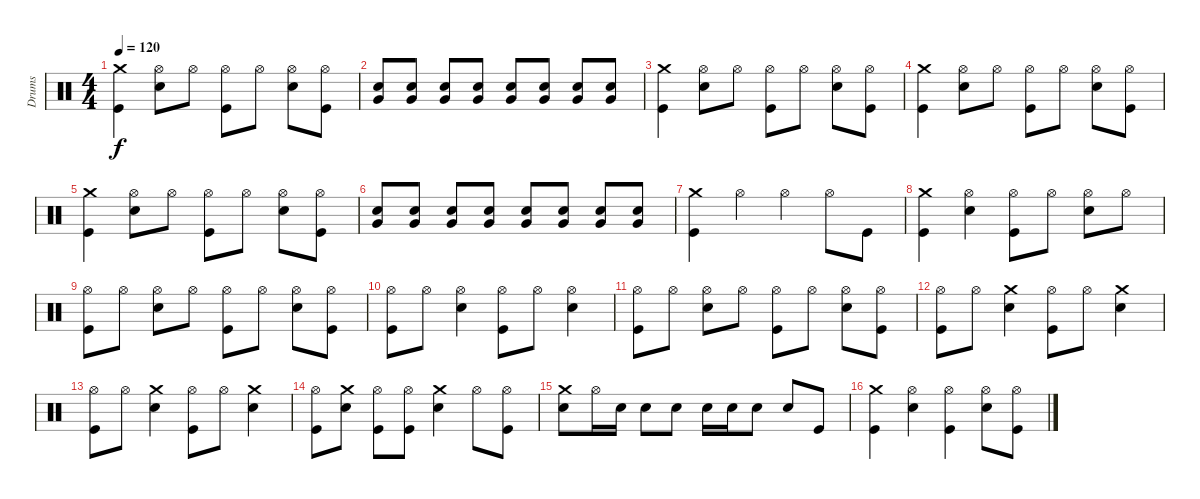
\track ("Drums" "Drums") {instrument percussion}
\staff {score}
\articulation defaults
\ts (4 4)
\tempo 120
\clef neutral
\ks c
("Kick (hit)" "Crash medium (hit)").4{dy f} ("Electric Snare (hit)" "Hi-Hat (open)").8 "Hi-Hat (open)".8 ("Kick (hit)" "Hi-Hat (open)").8 "Hi-Hat (open)".8 ("Electric Snare (hit)" "Hi-Hat (open)").8 ("Kick (hit)" "Hi-Hat (open)").8 |
("Electric Snare (hit)" "Very Low Tom (hit)").8 ("Electric Snare (hit)" "Very Low Tom (hit)").8 ("Electric Snare (hit)" "Very Low Tom (hit)").8 ("Electric Snare (hit)" "Very Low Tom (hit)").8 ("Electric Snare (hit)" "Very Low Tom (hit)").8 ("Electric Snare (hit)" "Very Low Tom (hit)").8 ("Electric Snare (hit)" "Very Low Tom (hit)").8 ("Electric Snare (hit)" "Very Low Tom (hit)").8 |
("Kick (hit)" "Crash medium (hit)").4 ("Electric Snare (hit)" "Hi-Hat (open)").8 "Hi-Hat (open)".8 ("Kick (hit)" "Hi-Hat (open)").8 "Hi-Hat (open)".8 ("Electric Snare (hit)" "Hi-Hat (open)").8 ("Kick (hit)" "Hi-Hat (open)").8 |
("Kick (hit)" "Crash medium (hit)").4 ("Electric Snare (hit)" "Hi-Hat (open)").8 "Hi-Hat (open)".8 ("Kick (hit)" "Hi-Hat (open)").8 "Hi-Hat (open)".8 ("Electric Snare (hit)" "Hi-Hat (open)").8 ("Kick (hit)" "Hi-Hat (open)").8 |
("Kick (hit)" "Crash medium (hit)").4 ("Electric Snare (hit)" "Hi-Hat (open)").8 "Hi-Hat (open)".8 ("Kick (hit)" "Hi-Hat (open)").8 "Hi-Hat (open)".8 ("Electric Snare (hit)" "Hi-Hat (open)").8 ("Kick (hit)" "Hi-Hat (open)").8 |
("Electric Snare (hit)" "Very Low Tom (hit)").8 ("Electric Snare (hit)" "Very Low Tom (hit)").8 ("Electric Snare (hit)" "Very Low Tom (hit)").8 ("Electric Snare (hit)" "Very Low Tom (hit)").8 ("Electric Snare (hit)" "Very Low Tom (hit)").8 ("Electric Snare (hit)" "Very Low Tom (hit)").8 ("Electric Snare (hit)" "Very Low Tom (hit)").8 ("Electric Snare (hit)" "Very Low Tom (hit)").8 |
("Kick (hit)" "Crash medium (hit)").4 "Hi-Hat (open)".4 "Hi-Hat (open)".4 "Hi-Hat (open)".8 "Kick (hit)".8 |
("Kick (hit)" "Crash medium (hit)").4 ("Electric Snare (hit)" "Hi-Hat (open)").4 ("Kick (hit)" "Hi-Hat (open)").8 "Hi-Hat (open)".8 ("Electric Snare (hit)" "Hi-Hat (open)").8 "Hi-Hat (open)".8 |
("Kick (hit)" "Hi-Hat (open)").8 "Hi-Hat (open)".8 ("Electric Snare (hit)" "Hi-Hat (open)").8 "Hi-Hat (open)".8 ("Kick (hit)" "Hi-Hat (open)").8 "Hi-Hat (open)".8 ("Electric Snare (hit)" "Hi-Hat (open)").8 ("Kick (hit)" "Hi-Hat (open)").8 |
("Kick (hit)" "Hi-Hat (open)").8 "Hi-Hat (open)".8 ("Electric Snare (hit)" "Hi-Hat (open)").4 ("Kick (hit)" "Hi-Hat (open)").8 "Hi-Hat (open)".8 ("Electric Snare (hit)" "Hi-Hat (open)").4 |
("Kick (hit)" "Hi-Hat (open)").8 "Hi-Hat (open)".8 ("Electric Snare (hit)" "Hi-Hat (open)").8 "Hi-Hat (open)".8 ("Kick (hit)" "Hi-Hat (open)").8 "Hi-Hat (open)".8 ("Electric Snare (hit)" "Hi-Hat (open)").8 ("Kick (hit)" "Hi-Hat (open)").8 |
("Kick (hit)" "Hi-Hat (open)").8 "Hi-Hat (open)".8 ("Electric Snare (hit)" "Crash medium (hit)").4 ("Kick (hit)" "Hi-Hat (open)").8 "Hi-Hat (open)".8 ("Electric Snare (hit)" "Crash medium (hit)").4 |
("Kick (hit)" "Hi-Hat (open)").8 "Hi-Hat (open)".8 ("Electric Snare (hit)" "Crash medium (hit)").4 ("Kick (hit)" "Hi-Hat (open)").8 "Hi-Hat (open)".8 ("Electric Snare (hit)" "Crash medium (hit)").4 |
("Kick (hit)" "Hi-Hat (open)").8 ("Electric Snare (hit)" "Crash medium (hit)").8 ("Kick (hit)" "Hi-Hat (open)").8 ("Kick (hit)" "Hi-Hat (open)").8 ("Electric Snare (hit)" "Crash medium (hit)").4 "Hi-Hat (open)".8 ("Kick (hit)" "Hi-Hat (open)").8 |
("Electric Snare (hit)" "Crash medium (hit)").8 "Hi-Hat (open)".16 "Electric Snare (hit)".16 "Electric Snare (hit)".8 "Electric Snare (hit)".8 "Electric Snare (hit)".16 "Electric Snare (hit)".16 "Electric Snare (hit)".8 "Electric Snare (hit)".8 "Kick (hit)".8 |
("Kick (hit)" "Crash medium (hit)").4 ("Electric Snare (hit)" "Hi-Hat (open)").4 ("Kick (hit)" "Hi-Hat (open)").4 ("Electric Snare (hit)" "Hi-Hat (open)").8 ("Kick (hit)" "Hi-Hat (open)").8
